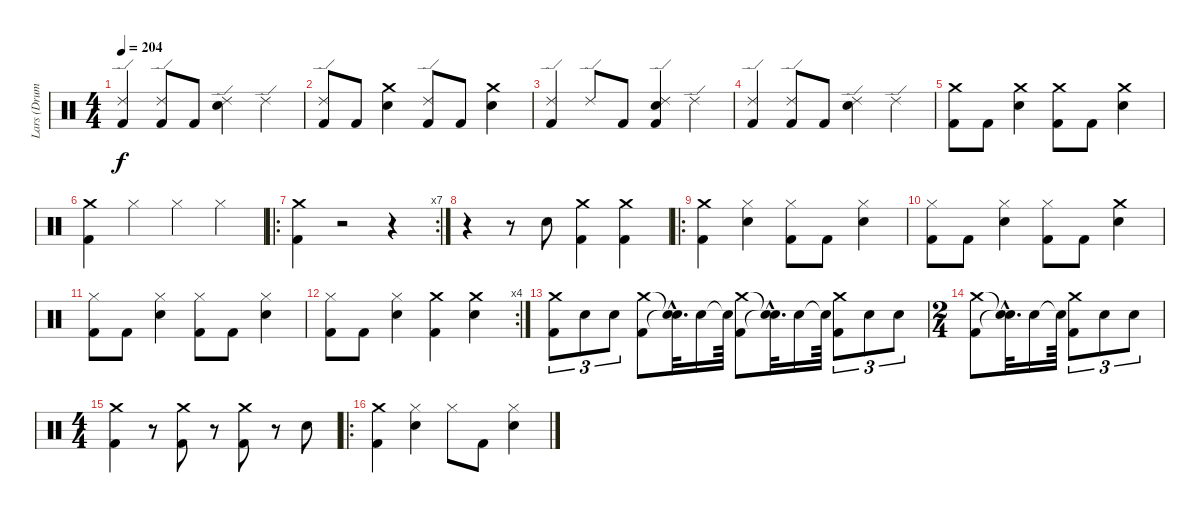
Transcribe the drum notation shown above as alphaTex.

\track ("Lars (Drums)" "Lars (Drum") {instrument percussion}
\staff {score}
\articulation defaults
\ts (4 4)
\tempo 204
\clef neutral
\ks c
("Kick (hit) 2" "Ride (edge) 2").4{dy f} ("Kick (hit) 2" "Ride (edge) 2").8 "Kick (hit) 2".8 ("Ride (edge) 2" "Snare (hit) 2").4 "Ride (edge) 2".4 |
("Ride (edge) 2" "Kick (hit) 2").8 "Kick (hit) 2".8 ("Snare (hit) 2" "Crash medium (hit)").4 ("Ride (edge) 2" "Kick (hit) 2").8 "Kick (hit) 2".8 ("Snare (hit) 2" "Crash medium (hit)").4 |
("Ride (edge) 2" "Kick (hit) 2").4 "Ride (edge) 2".8 "Kick (hit) 2".8 ("Ride (edge) 2" "Snare (hit) 2" "Kick (hit) 2").4 "Ride (edge) 2".4 |
("Kick (hit) 2" "Ride (edge) 2").4 ("Ride (edge) 2" "Kick (hit) 2").8 "Kick (hit) 2".8 ("Snare (hit) 2" "Ride (edge) 2").4 "Ride (edge) 2".4 |
("Kick (hit) 2" "Crash medium (hit)").8 "Kick (hit) 2".8 ("Snare (hit) 2" "Crash medium (hit)").4 ("Kick (hit) 2" "Crash medium (hit)").8 "Kick (hit) 2".8 ("Snare (hit) 2" "Crash medium (hit)").4 |
("Kick (hit) 2" "Crash medium (hit)").4 "Hi-Hat (closed)".4 "Hi-Hat (closed)".4 "Hi-Hat (closed)".4 |
\ro
\rc 7
("Kick (hit) 2" "Crash medium (hit)").4 r.2 r.4 |
r.4 r.8 "Snare (hit) 2".8 ("Kick (hit) 2" "Crash medium (hit)").4 ("Kick (hit) 2" "Crash medium (hit)").4 |
\ro
("Kick (hit) 2" "Crash medium (hit)").4 ("Hi-Hat (closed)" "Snare (hit) 2").4 ("Kick (hit) 2" "Hi-Hat (closed)").8 "Kick (hit) 2".8 ("Snare (hit) 2" "Hi-Hat (closed)").4 |
("Hi-Hat (closed)" "Kick (hit) 2").8 "Kick (hit) 2".8 ("Snare (hit) 2" "Hi-Hat (closed)").4 ("Hi-Hat (closed)" "Kick (hit) 2").8 "Kick (hit) 2".8 ("Crash medium (hit)" "Snare (hit) 2").4 |
("Hi-Hat (closed)" "Kick (hit) 2").8 "Kick (hit) 2".8 ("Snare (hit) 2" "Hi-Hat (closed)").4 ("Hi-Hat (closed)" "Kick (hit) 2").8 "Kick (hit) 2".8 ("Snare (hit) 2" "Hi-Hat (closed)").4 |
\rc 4
("Hi-Hat (closed)" "Kick (hit) 2").8 "Kick (hit) 2".8 ("Snare (hit) 2" "Hi-Hat (closed)").4 ("Crash medium (hit)" "Kick (hit) 2").4 ("Crash medium (hit)" "Snare (hit) 2").4 |
("Crash medium (hit)" "Kick (hit) 2").8{tu (3 2)} "Snare (hit) 2".8{tu (3 2)} "Snare (hit) 2".8{tu (3 2)} ("Crash medium (hit)" "Kick (hit) 2").8 ("Snare (hit)"{hac t} "Snare (hit)"{hac t}).32{d} "Snare (hit) 2".16 "Snare (hit)"{t}.64 ("Crash medium (hit)" "Kick (hit) 2").8 ("Snare (hit)"{hac t} "Snare (hit)"{hac t}).32{d} "Snare (hit) 2".16 "Snare (hit)"{t}.64 ("Crash medium (hit)" "Kick (hit) 2").8{tu (3 2)} "Snare (hit) 2".8{tu (3 2)} "Snare (hit) 2".8{tu (3 2)} |
\ts (2 4)
("Kick (hit) 2" "Crash medium (hit)").8 ("Snare (hit)"{hac t} "Snare (hit)"{hac t}).32{d} "Snare (hit) 2".16 "Snare (hit)"{t}.64 ("Kick (hit) 2" "Crash medium (hit)").8{tu (3 2)} "Snare (hit) 2".8{tu (3 2)} "Snare (hit) 2".8{tu (3 2)} |
\ts (4 4)
("Crash medium (hit)" "Kick (hit) 2").4 r.8 ("Kick (hit) 2" "Crash medium (hit)").8 r.8 ("Crash medium (hit)" "Kick (hit) 2").8 r.8 "Snare (hit) 2".8 |
\ro
("Kick (hit) 2" "Crash medium (hit)").4 ("Hi-Hat (closed)" "Snare (hit) 2").4 "Hi-Hat (closed)".8 "Kick (hit) 2".8 ("Snare (hit) 2" "Hi-Hat (closed)").4
